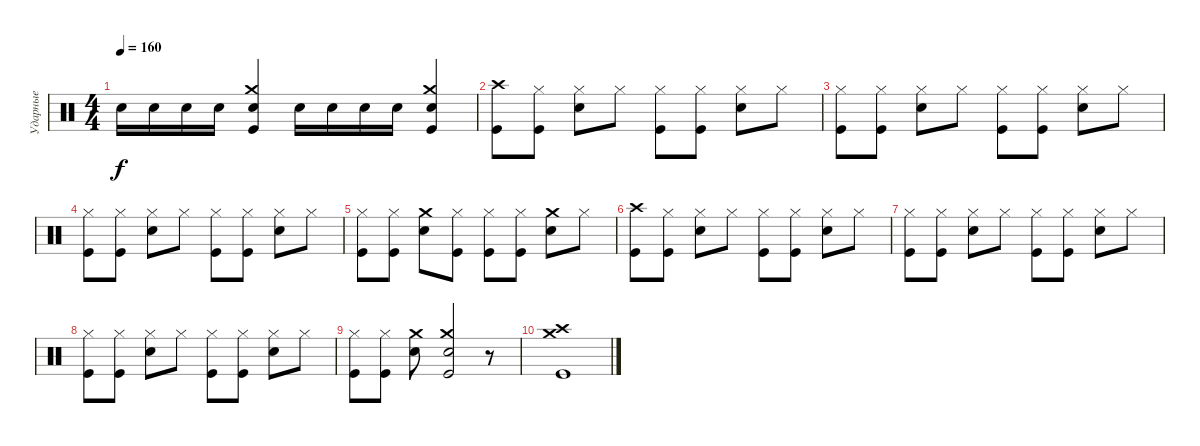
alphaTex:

\track ("Ударные" "Ударные") {instrument percussion}
\staff {score}
\articulation defaults
\ts (4 4)
\tempo 160
\clef neutral
\ks c "Snare (hit) 2".16{dy f} "Snare (hit) 2".16 "Snare (hit) 2".16 "Snare (hit) 2".16
("Snare (hit) 2" "Crash medium (hit)" "Kick (hit)").4 "Snare (hit) 2".16 "Snare (hit) 2".16 "Snare (hit) 2".16 "Snare (hit) 2".16 ("Snare (hit) 2" "Crash medium (hit)" "Kick (hit)").4 |
("Crash high (hit)" "Kick (hit)").8 ("Hi-Hat (closed)" "Kick (hit)").8 ("Hi-Hat (closed)" "Snare (hit) 2").8 "Hi-Hat (closed)".8 ("Hi-Hat (closed)" "Kick (hit)").8 ("Hi-Hat (closed)" "Kick (hit)").8 ("Hi-Hat (closed)" "Snare (hit) 2").8 "Hi-Hat (closed)".8 |
("Hi-Hat (closed)" "Kick (hit)").8 ("Hi-Hat (closed)" "Kick (hit)").8 ("Hi-Hat (closed)" "Snare (hit) 2").8 "Hi-Hat (closed)".8 ("Hi-Hat (closed)" "Kick (hit)").8 ("Hi-Hat (closed)" "Kick (hit)").8 ("Hi-Hat (closed)" "Snare (hit) 2").8 "Hi-Hat (closed)".8 |
("Hi-Hat (closed)" "Kick (hit)").8 ("Hi-Hat (closed)" "Kick (hit)").8 ("Hi-Hat (closed)" "Snare (hit) 2").8 "Hi-Hat (closed)".8 ("Hi-Hat (closed)" "Kick (hit)").8 ("Hi-Hat (closed)" "Kick (hit)").8 ("Hi-Hat (closed)" "Snare (hit) 2").8 "Hi-Hat (closed)".8 |
("Hi-Hat (closed)" "Kick (hit)").8 ("Hi-Hat (closed)" "Kick (hit)").8 ("Crash medium (hit)" "Snare (hit) 2").8 ("Hi-Hat (closed)" "Kick (hit)").8 ("Hi-Hat (closed)" "Kick (hit)").8 ("Hi-Hat (closed)" "Kick (hit)").8 ("Crash medium (hit)" "Snare (hit) 2").8 "Hi-Hat (closed)".8 |
("Crash high (hit)" "Kick (hit)").8 ("Hi-Hat (closed)" "Kick (hit)").8 ("Hi-Hat (closed)" "Snare (hit) 2").8 "Hi-Hat (closed)".8 ("Hi-Hat (closed)" "Kick (hit)").8 ("Hi-Hat (closed)" "Kick (hit)").8 ("Hi-Hat (closed)" "Snare (hit) 2").8 "Hi-Hat (closed)".8 |
("Hi-Hat (closed)" "Kick (hit)").8 ("Hi-Hat (closed)" "Kick (hit)").8 ("Hi-Hat (closed)" "Snare (hit) 2").8 "Hi-Hat (closed)".8 ("Hi-Hat (closed)" "Kick (hit)").8 ("Hi-Hat (closed)" "Kick (hit)").8 ("Hi-Hat (closed)" "Snare (hit) 2").8 "Hi-Hat (closed)".8 |
("Hi-Hat (closed)" "Kick (hit)").8 ("Hi-Hat (closed)" "Kick (hit)").8 ("Hi-Hat (closed)" "Snare (hit) 2").8 "Hi-Hat (closed)".8 ("Hi-Hat (closed)" "Kick (hit)").8 ("Hi-Hat (closed)" "Kick (hit)").8 ("Hi-Hat (closed)" "Snare (hit) 2").8 "Hi-Hat (closed)".8 |
("Hi-Hat (closed)" "Kick (hit)").8 ("Hi-Hat (closed)" "Kick (hit)").8 ("Crash medium (hit)" "Snare (hit) 2").8 ("Kick (hit)" "Snare (hit) 2" "Crash medium (hit)").2 r.8 |
("Crash high (hit)" "Crash medium (hit)" "Kick (hit)").1
